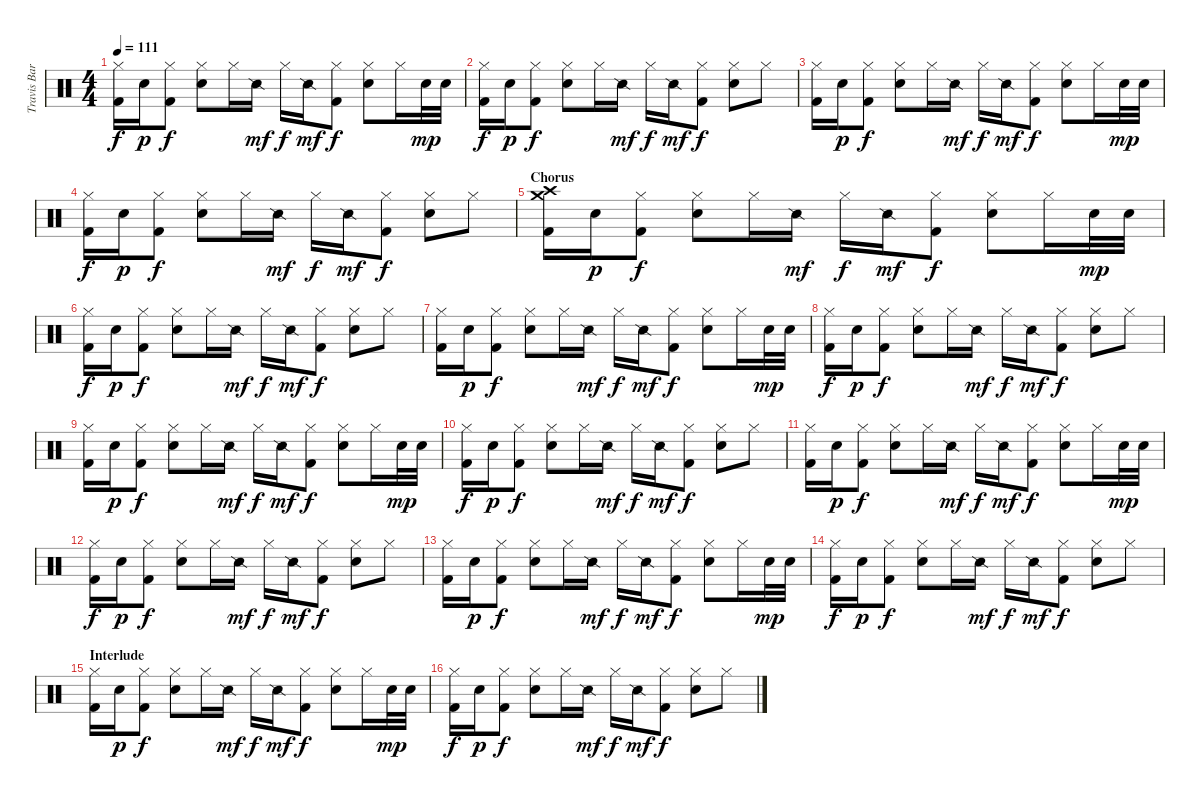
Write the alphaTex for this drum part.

\track ("Travis Barker - Drums" "Travis Bar") {instrument percussion}
\staff {score}
\articulation defaults
\ts (4 4)
\tempo 111
\clef neutral
\ks c
("Hi-Hat (closed)" "Kick (hit) 2").16{dy f} "Electric Snare (hit)".16{dy p} ("Hi-Hat (closed)" "Kick (hit) 2").8{dy f} ("Hi-Hat (closed)" "Electric Snare (hit)").8 "Hi-Hat (closed)".16 "Snare (side stick) 2".16{dy mf} "Hi-Hat (closed)".16{dy f} "Snare (side stick) 2".16{dy mf} ("Hi-Hat (closed)" "Kick (hit) 2").8{dy f} ("Hi-Hat (closed)" "Electric Snare (hit)").8 "Hi-Hat (closed)".16 "Electric Snare (hit)".32{dy mp} "Electric Snare (hit)".32 |
("Hi-Hat (closed)" "Kick (hit) 2").16{dy f} "Electric Snare (hit)".16{dy p} ("Hi-Hat (closed)" "Kick (hit) 2").8{dy f} ("Hi-Hat (closed)" "Electric Snare (hit)").8 "Hi-Hat (closed)".16 "Snare (side stick) 2".16{dy mf} "Hi-Hat (closed)".16{dy f} "Snare (side stick) 2".16{dy mf} ("Hi-Hat (closed)" "Kick (hit) 2").8{dy f} ("Hi-Hat (closed)" "Electric Snare (hit)").8 "Hi-Hat (closed)".8 |
("Hi-Hat (closed)" "Kick (hit) 2").16 "Electric Snare (hit)".16{dy p} ("Hi-Hat (closed)" "Kick (hit) 2").8{dy f} ("Hi-Hat (closed)" "Electric Snare (hit)").8 "Hi-Hat (closed)".16 "Snare (side stick) 2".16{dy mf} "Hi-Hat (closed)".16{dy f} "Snare (side stick) 2".16{dy mf} ("Hi-Hat (closed)" "Kick (hit) 2").8{dy f} ("Hi-Hat (closed)" "Electric Snare (hit)").8 "Hi-Hat (closed)".16 "Electric Snare (hit)".32{dy mp} "Electric Snare (hit)".32 |
("Hi-Hat (closed)" "Kick (hit) 2").16{dy f} "Electric Snare (hit)".16{dy p} ("Hi-Hat (closed)" "Kick (hit) 2").8{dy f} ("Hi-Hat (closed)" "Electric Snare (hit)").8 "Hi-Hat (closed)".16 "Snare (side stick) 2".16{dy mf} "Hi-Hat (closed)".16{dy f} "Snare (side stick) 2".16{dy mf} ("Hi-Hat (closed)" "Kick (hit) 2").8{dy f} ("Hi-Hat (closed)" "Electric Snare (hit)").8 "Hi-Hat (closed)".8 |
\section ("" "Chorus")
("Crash high (hit)" "Crash medium (hit)" "Kick (hit) 2").16 "Electric Snare (hit)".16{dy p} ("Hi-Hat (closed)" "Kick (hit) 2").8{dy f} ("Hi-Hat (closed)" "Electric Snare (hit)").8 "Hi-Hat (closed)".16 "Snare (side stick) 2".16{dy mf} "Hi-Hat (closed)".16{dy f} "Snare (side stick) 2".16{dy mf} ("Hi-Hat (closed)" "Kick (hit) 2").8{dy f} ("Hi-Hat (closed)" "Electric Snare (hit)").8 "Hi-Hat (closed)".16 "Electric Snare (hit)".32{dy mp} "Electric Snare (hit)".32 |
("Hi-Hat (closed)" "Kick (hit) 2").16{dy f} "Electric Snare (hit)".16{dy p} ("Hi-Hat (closed)" "Kick (hit) 2").8{dy f} ("Hi-Hat (closed)" "Electric Snare (hit)").8 "Hi-Hat (closed)".16 "Snare (side stick) 2".16{dy mf} "Hi-Hat (closed)".16{dy f} "Snare (side stick) 2".16{dy mf} ("Hi-Hat (closed)" "Kick (hit) 2").8{dy f} ("Hi-Hat (closed)" "Electric Snare (hit)").8 "Hi-Hat (closed)".8 |
("Hi-Hat (closed)" "Kick (hit) 2").16 "Electric Snare (hit)".16{dy p} ("Hi-Hat (closed)" "Kick (hit) 2").8{dy f} ("Hi-Hat (closed)" "Electric Snare (hit)").8 "Hi-Hat (closed)".16 "Snare (side stick) 2".16{dy mf} "Hi-Hat (closed)".16{dy f} "Snare (side stick) 2".16{dy mf} ("Hi-Hat (closed)" "Kick (hit) 2").8{dy f} ("Hi-Hat (closed)" "Electric Snare (hit)").8 "Hi-Hat (closed)".16 "Electric Snare (hit)".32{dy mp} "Electric Snare (hit)".32 |
("Hi-Hat (closed)" "Kick (hit) 2").16{dy f} "Electric Snare (hit)".16{dy p} ("Hi-Hat (closed)" "Kick (hit) 2").8{dy f} ("Hi-Hat (closed)" "Electric Snare (hit)").8 "Hi-Hat (closed)".16 "Snare (side stick) 2".16{dy mf} "Hi-Hat (closed)".16{dy f} "Snare (side stick) 2".16{dy mf} ("Hi-Hat (closed)" "Kick (hit) 2").8{dy f} ("Hi-Hat (closed)" "Electric Snare (hit)").8 "Hi-Hat (closed)".8 |
("Hi-Hat (closed)" "Kick (hit) 2").16 "Electric Snare (hit)".16{dy p} ("Hi-Hat (closed)" "Kick (hit) 2").8{dy f} ("Hi-Hat (closed)" "Electric Snare (hit)").8 "Hi-Hat (closed)".16 "Snare (side stick) 2".16{dy mf} "Hi-Hat (closed)".16{dy f} "Snare (side stick) 2".16{dy mf} ("Hi-Hat (closed)" "Kick (hit) 2").8{dy f} ("Hi-Hat (closed)" "Electric Snare (hit)").8 "Hi-Hat (closed)".16 "Electric Snare (hit)".32{dy mp} "Electric Snare (hit)".32 |
("Hi-Hat (closed)" "Kick (hit) 2").16{dy f} "Electric Snare (hit)".16{dy p} ("Hi-Hat (closed)" "Kick (hit) 2").8{dy f} ("Hi-Hat (closed)" "Electric Snare (hit)").8 "Hi-Hat (closed)".16 "Snare (side stick) 2".16{dy mf} "Hi-Hat (closed)".16{dy f} "Snare (side stick) 2".16{dy mf} ("Hi-Hat (closed)" "Kick (hit) 2").8{dy f} ("Hi-Hat (closed)" "Electric Snare (hit)").8 "Hi-Hat (closed)".8 |
("Hi-Hat (closed)" "Kick (hit) 2").16 "Electric Snare (hit)".16{dy p} ("Hi-Hat (closed)" "Kick (hit) 2").8{dy f} ("Hi-Hat (closed)" "Electric Snare (hit)").8 "Hi-Hat (closed)".16 "Snare (side stick) 2".16{dy mf} "Hi-Hat (closed)".16{dy f} "Snare (side stick) 2".16{dy mf} ("Hi-Hat (closed)" "Kick (hit) 2").8{dy f} ("Hi-Hat (closed)" "Electric Snare (hit)").8 "Hi-Hat (closed)".16 "Electric Snare (hit)".32{dy mp} "Electric Snare (hit)".32 |
("Hi-Hat (closed)" "Kick (hit) 2").16{dy f} "Electric Snare (hit)".16{dy p} ("Hi-Hat (closed)" "Kick (hit) 2").8{dy f} ("Hi-Hat (closed)" "Electric Snare (hit)").8 "Hi-Hat (closed)".16 "Snare (side stick) 2".16{dy mf} "Hi-Hat (closed)".16{dy f} "Snare (side stick) 2".16{dy mf} ("Hi-Hat (closed)" "Kick (hit) 2").8{dy f} ("Hi-Hat (closed)" "Electric Snare (hit)").8 "Hi-Hat (closed)".8 |
("Hi-Hat (closed)" "Kick (hit) 2").16 "Electric Snare (hit)".16{dy p} ("Hi-Hat (closed)" "Kick (hit) 2").8{dy f} ("Hi-Hat (closed)" "Electric Snare (hit)").8 "Hi-Hat (closed)".16 "Snare (side stick) 2".16{dy mf} "Hi-Hat (closed)".16{dy f} "Snare (side stick) 2".16{dy mf} ("Hi-Hat (closed)" "Kick (hit) 2").8{dy f} ("Hi-Hat (closed)" "Electric Snare (hit)").8 "Hi-Hat (closed)".16 "Electric Snare (hit)".32{dy mp} "Electric Snare (hit)".32 |
("Hi-Hat (closed)" "Kick (hit) 2").16{dy f} "Electric Snare (hit)".16{dy p} ("Hi-Hat (closed)" "Kick (hit) 2").8{dy f} ("Hi-Hat (closed)" "Electric Snare (hit)").8 "Hi-Hat (closed)".16 "Snare (side stick) 2".16{dy mf} "Hi-Hat (closed)".16{dy f} "Snare (side stick) 2".16{dy mf} ("Hi-Hat (closed)" "Kick (hit) 2").8{dy f} ("Hi-Hat (closed)" "Electric Snare (hit)").8 "Hi-Hat (closed)".8 |
\section ("" "Interlude")
("Hi-Hat (closed)" "Kick (hit) 2").16 "Electric Snare (hit)".16{dy p} ("Hi-Hat (closed)" "Kick (hit) 2").8{dy f} ("Hi-Hat (closed)" "Electric Snare (hit)").8 "Hi-Hat (closed)".16 "Snare (side stick) 2".16{dy mf} "Hi-Hat (closed)".16{dy f} "Snare (side stick) 2".16{dy mf} ("Hi-Hat (closed)" "Kick (hit) 2").8{dy f} ("Hi-Hat (closed)" "Electric Snare (hit)").8 "Hi-Hat (closed)".16 "Electric Snare (hit)".32{dy mp} "Electric Snare (hit)".32 |
("Hi-Hat (closed)" "Kick (hit) 2").16{dy f} "Electric Snare (hit)".16{dy p} ("Hi-Hat (closed)" "Kick (hit) 2").8{dy f} ("Hi-Hat (closed)" "Electric Snare (hit)").8 "Hi-Hat (closed)".16 "Snare (side stick) 2".16{dy mf} "Hi-Hat (closed)".16{dy f} "Snare (side stick) 2".16{dy mf} ("Hi-Hat (closed)" "Kick (hit) 2").8{dy f} ("Hi-Hat (closed)" "Electric Snare (hit)").8 "Hi-Hat (closed)".8
